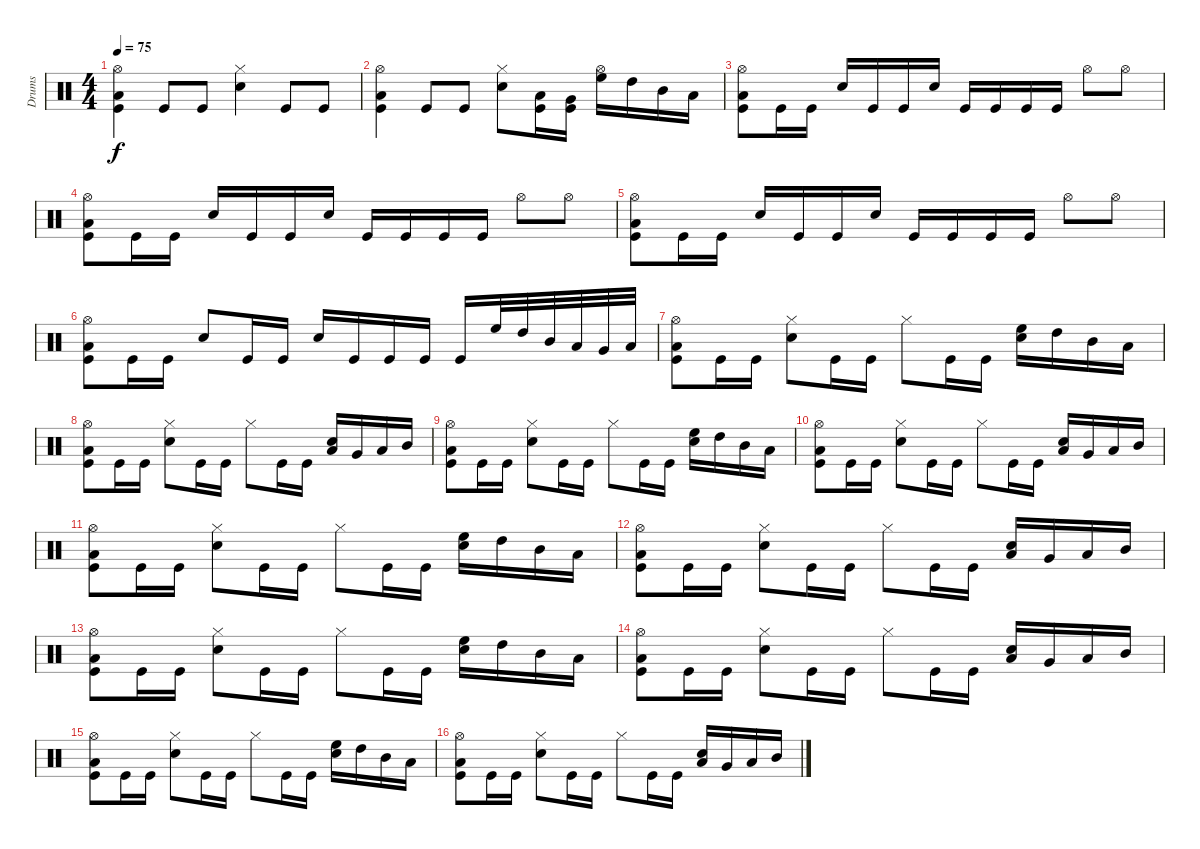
\track ("Drums" "Drums") {instrument percussion}
\staff {score}
\articulation defaults
\ts (4 4)
\tempo 75
\clef neutral
\ks c
("Hi-Hat (open)" "Low Tom (hit)" "Kick (hit)").4{dy f} "Kick (hit)".8 "Kick (hit)".8 ("Hi-Hat (closed)" "Snare (hit) 2").4 "Kick (hit)".8 "Kick (hit)".8 |
("Hi-Hat (open)" "Low Tom (hit)" "Kick (hit)").4 "Kick (hit)".8 "Kick (hit)".8 ("Hi-Hat (closed)" "Snare (hit) 2").8 ("Low Floor Tom (hit)" "Kick (hit)").16 ("Very Low Tom (hit)" "Kick (hit)").16 ("Hi-Hat (open)" "High Floor Tom (hit)").16 "High Tom (hit)".16 "Mid Tom (hit)".16 "Low Tom (hit)".16 |
("Hi-Hat (open)" "Low Tom (hit)" "Kick (hit)").8 "Kick (hit)".16 "Kick (hit)".16 "Snare (hit) 2".16 "Kick (hit)".16 "Kick (hit)".16 "Snare (hit) 2".16 "Kick (hit)".16 "Kick (hit)".16 "Kick (hit)".16 "Kick (hit)".16 "Hi-Hat (open)".8 "Hi-Hat (open)".8 |
("Hi-Hat (open)" "Low Tom (hit)" "Kick (hit)").8 "Kick (hit)".16 "Kick (hit)".16 "Snare (hit) 2".16 "Kick (hit)".16 "Kick (hit)".16 "Snare (hit) 2".16 "Kick (hit)".16 "Kick (hit)".16 "Kick (hit)".16 "Kick (hit)".16 "Hi-Hat (open)".8 "Hi-Hat (open)".8 |
("Hi-Hat (open)" "Low Tom (hit)" "Kick (hit)").8 "Kick (hit)".16 "Kick (hit)".16 "Snare (hit) 2".16 "Kick (hit)".16 "Kick (hit)".16 "Snare (hit) 2".16 "Kick (hit)".16 "Kick (hit)".16 "Kick (hit)".16 "Kick (hit)".16 "Hi-Hat (open)".8 "Hi-Hat (open)".8 |
("Hi-Hat (open)" "Low Tom (hit)" "Kick (hit)").8 "Kick (hit)".16 "Kick (hit)".16 "Snare (hit) 2".8 "Kick (hit)".16 "Kick (hit)".16 "Snare (hit) 2".16 "Kick (hit)".16 "Kick (hit)".16 "Kick (hit)".16 "Kick (hit)".16 "High Floor Tom (hit)".32 "High Tom (hit)".32 "Mid Tom (hit)".32 "Low Tom (hit)".32 "Very Low Tom (hit)".32 "Low Floor Tom (hit)".32 |
("Hi-Hat (open)" "Low Tom (hit)" "Kick (hit)").8 "Kick (hit)".16 "Kick (hit)".16 ("Hi-Hat (closed)" "Snare (hit) 2").8 "Kick (hit)".16 "Kick (hit)".16 "Hi-Hat (closed)".8 "Kick (hit)".16 "Kick (hit)".16 ("Snare (hit) 2" "High Floor Tom (hit)").16 "High Tom (hit)".16 "Mid Tom (hit)".16 "Low Tom (hit)".16 |
("Hi-Hat (open)" "Low Tom (hit)" "Kick (hit)").8 "Kick (hit)".16 "Kick (hit)".16 ("Hi-Hat (closed)" "Snare (hit) 2").8 "Kick (hit)".16 "Kick (hit)".16 "Hi-Hat (closed)".8 "Kick (hit)".16 "Kick (hit)".16 ("Snare (hit) 2" "Low Floor Tom (hit)").16 "Very Low Tom (hit)".16 "Low Tom (hit)".16 "Mid Tom (hit)".16 |
("Hi-Hat (open)" "Low Tom (hit)" "Kick (hit)").8 "Kick (hit)".16 "Kick (hit)".16 ("Hi-Hat (closed)" "Snare (hit) 2").8 "Kick (hit)".16 "Kick (hit)".16 "Hi-Hat (closed)".8 "Kick (hit)".16 "Kick (hit)".16 ("Snare (hit) 2" "High Floor Tom (hit)").16 "High Tom (hit)".16 "Mid Tom (hit)".16 "Low Tom (hit)".16 |
("Hi-Hat (open)" "Low Tom (hit)" "Kick (hit)").8 "Kick (hit)".16 "Kick (hit)".16 ("Hi-Hat (closed)" "Snare (hit) 2").8 "Kick (hit)".16 "Kick (hit)".16 "Hi-Hat (closed)".8 "Kick (hit)".16 "Kick (hit)".16 ("Snare (hit) 2" "Low Floor Tom (hit)").16 "Very Low Tom (hit)".16 "Low Tom (hit)".16 "Mid Tom (hit)".16 |
("Hi-Hat (open)" "Low Tom (hit)" "Kick (hit)").8 "Kick (hit)".16 "Kick (hit)".16 ("Hi-Hat (closed)" "Snare (hit) 2").8 "Kick (hit)".16 "Kick (hit)".16 "Hi-Hat (closed)".8 "Kick (hit)".16 "Kick (hit)".16 ("Snare (hit) 2" "High Floor Tom (hit)").16 "High Tom (hit)".16 "Mid Tom (hit)".16 "Low Tom (hit)".16 |
("Hi-Hat (open)" "Low Tom (hit)" "Kick (hit)").8 "Kick (hit)".16 "Kick (hit)".16 ("Hi-Hat (closed)" "Snare (hit) 2").8 "Kick (hit)".16 "Kick (hit)".16 "Hi-Hat (closed)".8 "Kick (hit)".16 "Kick (hit)".16 ("Snare (hit) 2" "Low Floor Tom (hit)").16 "Very Low Tom (hit)".16 "Low Tom (hit)".16 "Mid Tom (hit)".16 |
("Hi-Hat (open)" "Low Tom (hit)" "Kick (hit)").8 "Kick (hit)".16 "Kick (hit)".16 ("Hi-Hat (closed)" "Snare (hit) 2").8 "Kick (hit)".16 "Kick (hit)".16 "Hi-Hat (closed)".8 "Kick (hit)".16 "Kick (hit)".16 ("Snare (hit) 2" "High Floor Tom (hit)").16 "High Tom (hit)".16 "Mid Tom (hit)".16 "Low Tom (hit)".16 |
("Hi-Hat (open)" "Low Tom (hit)" "Kick (hit)").8 "Kick (hit)".16 "Kick (hit)".16 ("Hi-Hat (closed)" "Snare (hit) 2").8 "Kick (hit)".16 "Kick (hit)".16 "Hi-Hat (closed)".8 "Kick (hit)".16 "Kick (hit)".16 ("Snare (hit) 2" "Low Floor Tom (hit)").16 "Very Low Tom (hit)".16 "Low Tom (hit)".16 "Mid Tom (hit)".16 |
("Hi-Hat (open)" "Low Tom (hit)" "Kick (hit)").8 "Kick (hit)".16 "Kick (hit)".16 ("Hi-Hat (closed)" "Snare (hit) 2").8 "Kick (hit)".16 "Kick (hit)".16 "Hi-Hat (closed)".8 "Kick (hit)".16 "Kick (hit)".16 ("Snare (hit) 2" "High Floor Tom (hit)").16 "High Tom (hit)".16 "Mid Tom (hit)".16 "Low Tom (hit)".16 |
("Hi-Hat (open)" "Low Tom (hit)" "Kick (hit)").8 "Kick (hit)".16 "Kick (hit)".16 ("Hi-Hat (closed)" "Snare (hit) 2").8 "Kick (hit)".16 "Kick (hit)".16 "Hi-Hat (closed)".8 "Kick (hit)".16 "Kick (hit)".16 ("Snare (hit) 2" "Low Floor Tom (hit)").16 "Very Low Tom (hit)".16 "Low Tom (hit)".16 "Mid Tom (hit)".16
